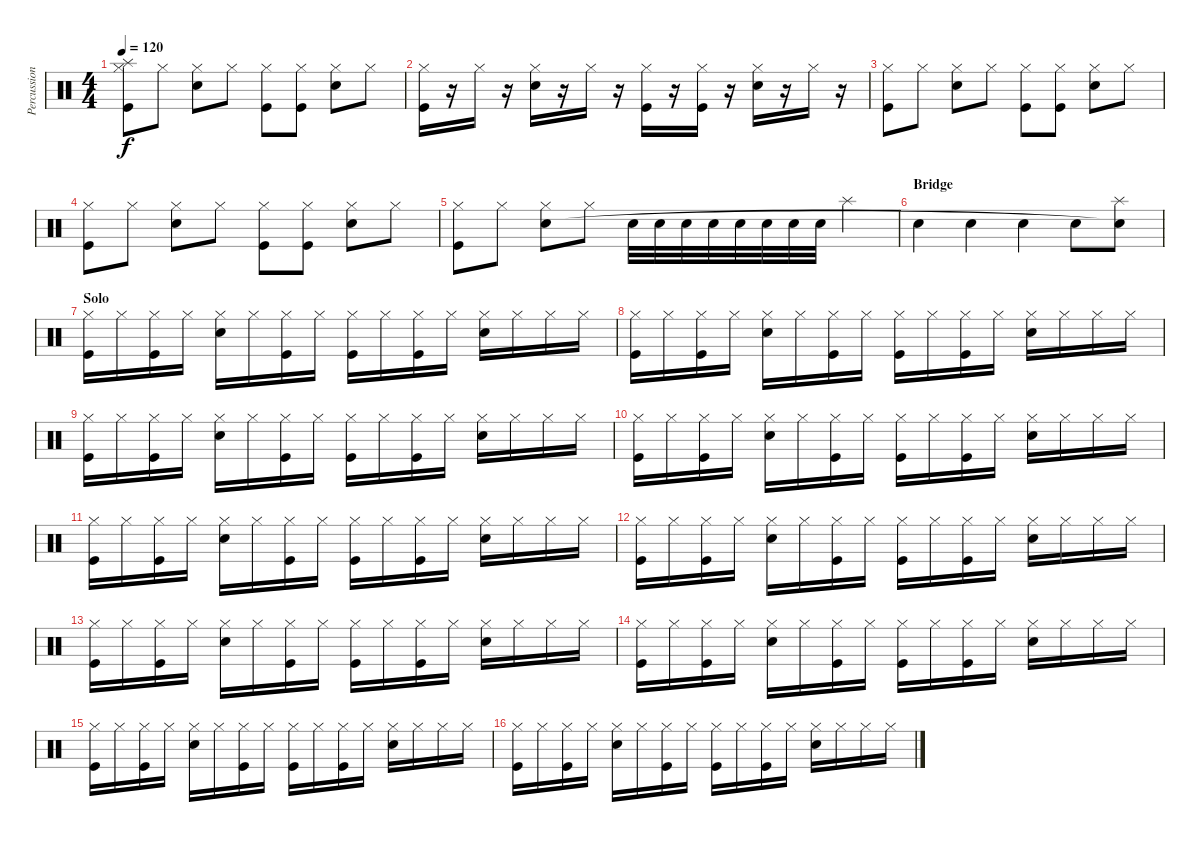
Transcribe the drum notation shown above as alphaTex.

\track ("Percussion" "Percussion") {instrument percussion}
\staff {score}
\articulation defaults
\ts (4 4)
\tempo 120
\clef neutral
\ks c
("Hi-Hat (closed)" "Kick (hit)" "Splash (hit)").8{dy f} "Hi-Hat (closed)".8 ("Hi-Hat (closed)" "Snare (hit) 2").8 "Hi-Hat (closed)".8 ("Hi-Hat (closed)" "Kick (hit)").8 ("Hi-Hat (closed)" "Kick (hit)").8 ("Hi-Hat (closed)" "Snare (hit) 2").8 "Hi-Hat (closed)".8 |
("Hi-Hat (closed)" "Kick (hit)").16 r.16 "Hi-Hat (closed)".16 r.16 ("Hi-Hat (closed)" "Snare (hit) 2").16 r.16 "Hi-Hat (closed)".16 r.16 ("Hi-Hat (closed)" "Kick (hit)").16 r.16 ("Hi-Hat (closed)" "Kick (hit)").16 r.16 ("Hi-Hat (closed)" "Snare (hit) 2").16 r.16 "Hi-Hat (closed)".16 r.16 |
("Hi-Hat (closed)" "Kick (hit)").8 "Hi-Hat (closed)".8 ("Hi-Hat (closed)" "Snare (hit) 2").8 "Hi-Hat (closed)".8 ("Hi-Hat (closed)" "Kick (hit)").8 ("Hi-Hat (closed)" "Kick (hit)").8 ("Hi-Hat (closed)" "Snare (hit) 2").8 "Hi-Hat (closed)".8 |
("Hi-Hat (closed)" "Kick (hit)").8 "Hi-Hat (closed)".8 ("Hi-Hat (closed)" "Snare (hit) 2").8 "Hi-Hat (closed)".8 ("Hi-Hat (closed)" "Kick (hit)").8 ("Hi-Hat (closed)" "Kick (hit)").8 ("Hi-Hat (closed)" "Snare (hit) 2").8 "Hi-Hat (closed)".8 |
("Hi-Hat (closed)" "Kick (hit)").8 "Hi-Hat (closed)".8 ("Hi-Hat (closed)" "Snare (hit) 2").8 "Hi-Hat (closed)".8 "Snare (hit) 2".32 "Snare (hit) 2".32 "Snare (hit) 2".32 "Snare (hit) 2".32 "Snare (hit) 2".32 "Snare (hit) 2".32 "Snare (hit) 2".32 "Snare (hit) 2".32 "Splash (hit)".4 |
\section ("" "Bridge")
"Snare (hit) 2".4 "Snare (hit) 2".4 "Snare (hit) 2".4 "Snare (hit) 2".8 ("Splash (hit)" "Snare (hit)"{t}).8 |
\section ("" "Solo")
("Hi-Hat (closed)" "Kick (hit)").16 "Hi-Hat (closed)".16 ("Hi-Hat (closed)" "Kick (hit)").16 "Hi-Hat (closed)".16 ("Hi-Hat (closed)" "Snare (hit) 2").16 "Hi-Hat (closed)".16 ("Hi-Hat (closed)" "Kick (hit)").16 "Hi-Hat (closed)".16 ("Hi-Hat (closed)" "Kick (hit)").16 "Hi-Hat (closed)".16 ("Hi-Hat (closed)" "Kick (hit)").16 "Hi-Hat (closed)".16 ("Hi-Hat (closed)" "Snare (hit) 2").16 "Hi-Hat (closed)".16 "Hi-Hat (closed)".16 "Hi-Hat (closed)".16 |
("Hi-Hat (closed)" "Kick (hit)").16 "Hi-Hat (closed)".16 ("Hi-Hat (closed)" "Kick (hit)").16 "Hi-Hat (closed)".16 ("Hi-Hat (closed)" "Snare (hit) 2").16 "Hi-Hat (closed)".16 ("Hi-Hat (closed)" "Kick (hit)").16 "Hi-Hat (closed)".16 ("Hi-Hat (closed)" "Kick (hit)").16 "Hi-Hat (closed)".16 ("Hi-Hat (closed)" "Kick (hit)").16 "Hi-Hat (closed)".16 ("Hi-Hat (closed)" "Snare (hit) 2").16 "Hi-Hat (closed)".16 "Hi-Hat (closed)".16 "Hi-Hat (closed)".16 |
("Hi-Hat (closed)" "Kick (hit)").16 "Hi-Hat (closed)".16 ("Hi-Hat (closed)" "Kick (hit)").16 "Hi-Hat (closed)".16 ("Hi-Hat (closed)" "Snare (hit) 2").16 "Hi-Hat (closed)".16 ("Hi-Hat (closed)" "Kick (hit)").16 "Hi-Hat (closed)".16 ("Hi-Hat (closed)" "Kick (hit)").16 "Hi-Hat (closed)".16 ("Hi-Hat (closed)" "Kick (hit)").16 "Hi-Hat (closed)".16 ("Hi-Hat (closed)" "Snare (hit) 2").16 "Hi-Hat (closed)".16 "Hi-Hat (closed)".16 "Hi-Hat (closed)".16 |
("Hi-Hat (closed)" "Kick (hit)").16 "Hi-Hat (closed)".16 ("Hi-Hat (closed)" "Kick (hit)").16 "Hi-Hat (closed)".16 ("Hi-Hat (closed)" "Snare (hit) 2").16 "Hi-Hat (closed)".16 ("Hi-Hat (closed)" "Kick (hit)").16 "Hi-Hat (closed)".16 ("Hi-Hat (closed)" "Kick (hit)").16 "Hi-Hat (closed)".16 ("Hi-Hat (closed)" "Kick (hit)").16 "Hi-Hat (closed)".16 ("Hi-Hat (closed)" "Snare (hit) 2").16 "Hi-Hat (closed)".16 "Hi-Hat (closed)".16 "Hi-Hat (closed)".16 |
("Hi-Hat (closed)" "Kick (hit)").16 "Hi-Hat (closed)".16 ("Hi-Hat (closed)" "Kick (hit)").16 "Hi-Hat (closed)".16 ("Hi-Hat (closed)" "Snare (hit) 2").16 "Hi-Hat (closed)".16 ("Hi-Hat (closed)" "Kick (hit)").16 "Hi-Hat (closed)".16 ("Hi-Hat (closed)" "Kick (hit)").16 "Hi-Hat (closed)".16 ("Hi-Hat (closed)" "Kick (hit)").16 "Hi-Hat (closed)".16 ("Hi-Hat (closed)" "Snare (hit) 2").16 "Hi-Hat (closed)".16 "Hi-Hat (closed)".16 "Hi-Hat (closed)".16 |
("Hi-Hat (closed)" "Kick (hit)").16 "Hi-Hat (closed)".16 ("Hi-Hat (closed)" "Kick (hit)").16 "Hi-Hat (closed)".16 ("Hi-Hat (closed)" "Snare (hit) 2").16 "Hi-Hat (closed)".16 ("Hi-Hat (closed)" "Kick (hit)").16 "Hi-Hat (closed)".16 ("Hi-Hat (closed)" "Kick (hit)").16 "Hi-Hat (closed)".16 ("Hi-Hat (closed)" "Kick (hit)").16 "Hi-Hat (closed)".16 ("Hi-Hat (closed)" "Snare (hit) 2").16 "Hi-Hat (closed)".16 "Hi-Hat (closed)".16 "Hi-Hat (closed)".16 |
("Hi-Hat (closed)" "Kick (hit)").16 "Hi-Hat (closed)".16 ("Hi-Hat (closed)" "Kick (hit)").16 "Hi-Hat (closed)".16 ("Hi-Hat (closed)" "Snare (hit) 2").16 "Hi-Hat (closed)".16 ("Hi-Hat (closed)" "Kick (hit)").16 "Hi-Hat (closed)".16 ("Hi-Hat (closed)" "Kick (hit)").16 "Hi-Hat (closed)".16 ("Hi-Hat (closed)" "Kick (hit)").16 "Hi-Hat (closed)".16 ("Hi-Hat (closed)" "Snare (hit) 2").16 "Hi-Hat (closed)".16 "Hi-Hat (closed)".16 "Hi-Hat (closed)".16 |
("Hi-Hat (closed)" "Kick (hit)").16 "Hi-Hat (closed)".16 ("Hi-Hat (closed)" "Kick (hit)").16 "Hi-Hat (closed)".16 ("Hi-Hat (closed)" "Snare (hit) 2").16 "Hi-Hat (closed)".16 ("Hi-Hat (closed)" "Kick (hit)").16 "Hi-Hat (closed)".16 ("Hi-Hat (closed)" "Kick (hit)").16 "Hi-Hat (closed)".16 ("Hi-Hat (closed)" "Kick (hit)").16 "Hi-Hat (closed)".16 ("Hi-Hat (closed)" "Snare (hit) 2").16 "Hi-Hat (closed)".16 "Hi-Hat (closed)".16 "Hi-Hat (closed)".16 |
("Hi-Hat (closed)" "Kick (hit)").16 "Hi-Hat (closed)".16 ("Hi-Hat (closed)" "Kick (hit)").16 "Hi-Hat (closed)".16 ("Hi-Hat (closed)" "Snare (hit) 2").16 "Hi-Hat (closed)".16 ("Hi-Hat (closed)" "Kick (hit)").16 "Hi-Hat (closed)".16 ("Hi-Hat (closed)" "Kick (hit)").16 "Hi-Hat (closed)".16 ("Hi-Hat (closed)" "Kick (hit)").16 "Hi-Hat (closed)".16 ("Hi-Hat (closed)" "Snare (hit) 2").16 "Hi-Hat (closed)".16 "Hi-Hat (closed)".16 "Hi-Hat (closed)".16 |
("Hi-Hat (closed)" "Kick (hit)").16 "Hi-Hat (closed)".16 ("Hi-Hat (closed)" "Kick (hit)").16 "Hi-Hat (closed)".16 ("Hi-Hat (closed)" "Snare (hit) 2").16 "Hi-Hat (closed)".16 ("Hi-Hat (closed)" "Kick (hit)").16 "Hi-Hat (closed)".16 ("Hi-Hat (closed)" "Kick (hit)").16 "Hi-Hat (closed)".16 ("Hi-Hat (closed)" "Kick (hit)").16 "Hi-Hat (closed)".16 ("Hi-Hat (closed)" "Snare (hit) 2").16 "Hi-Hat (closed)".16 "Hi-Hat (closed)".16 "Hi-Hat (closed)".16
